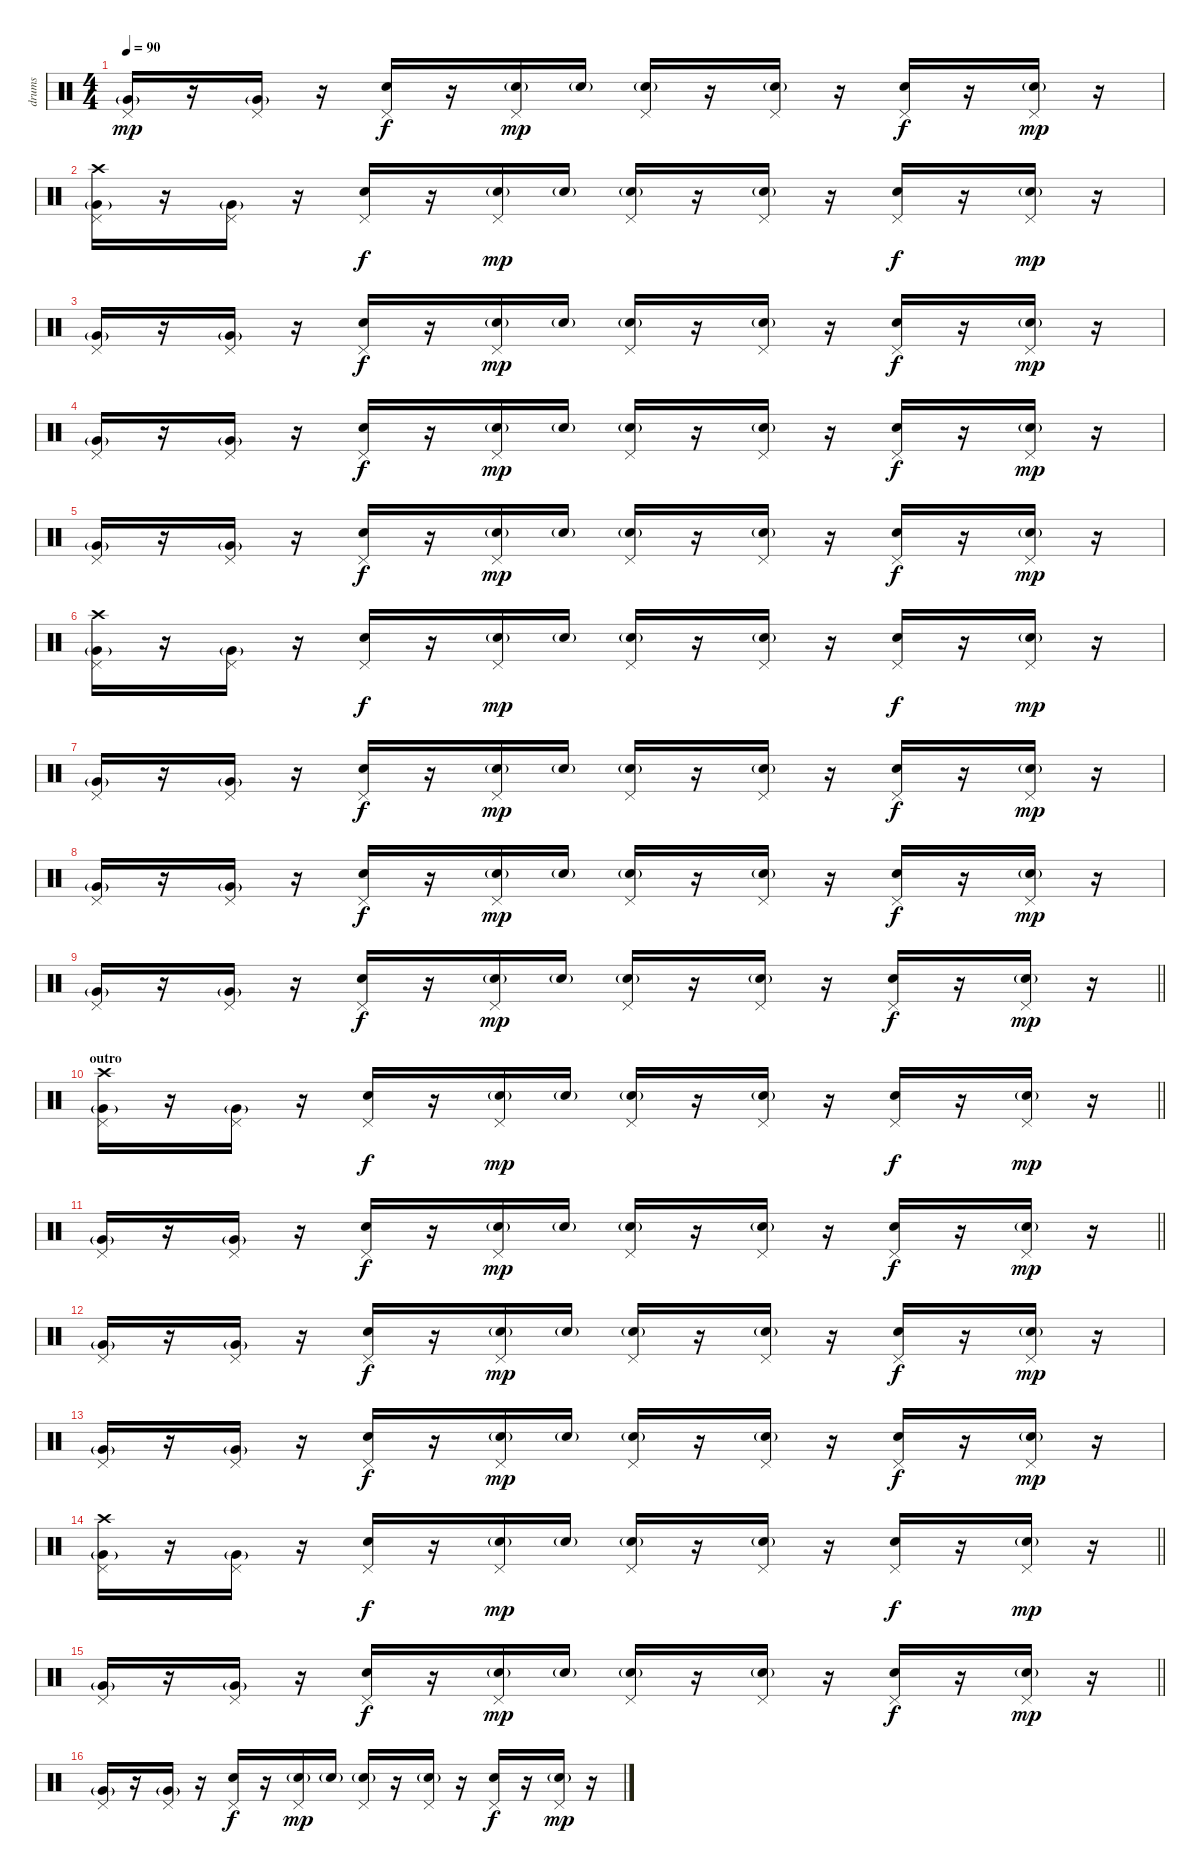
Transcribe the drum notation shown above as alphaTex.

\track ("drums" "drums") {instrument percussion}
\staff {score}
\articulation defaults
\ts (4 4)
\tempo 90
\clef neutral
\ks c
("Very Low Tom (hit)"{g} "Pedal Hi-Hat (hit)").16{dy mp} r.16 ("Very Low Tom (hit)"{g} "Pedal Hi-Hat (hit)").16 r.16 ("Electric Snare (hit)" "Pedal Hi-Hat (hit)").16{dy f} r.16 ("Electric Snare (hit)"{g} "Pedal Hi-Hat (hit)").16{dy mp} "Electric Snare (hit)"{g}.16 ("Electric Snare (hit)"{g} "Pedal Hi-Hat (hit)").16 r.16 ("Electric Snare (hit)"{g} "Pedal Hi-Hat (hit)").16 r.16 ("Electric Snare (hit)" "Pedal Hi-Hat (hit)").16{dy f} r.16 ("Electric Snare (hit)"{g} "Pedal Hi-Hat (hit)").16{dy mp} r.16 |
("Very Low Tom (hit)"{g} "Pedal Hi-Hat (hit)" "Crash high (hit)").16 r.16 ("Very Low Tom (hit)"{g} "Pedal Hi-Hat (hit)").16 r.16 ("Electric Snare (hit)" "Pedal Hi-Hat (hit)").16{dy f} r.16 ("Electric Snare (hit)"{g} "Pedal Hi-Hat (hit)").16{dy mp} "Electric Snare (hit)"{g}.16 ("Electric Snare (hit)"{g} "Pedal Hi-Hat (hit)").16 r.16 ("Electric Snare (hit)"{g} "Pedal Hi-Hat (hit)").16 r.16 ("Electric Snare (hit)" "Pedal Hi-Hat (hit)").16{dy f} r.16 ("Electric Snare (hit)"{g} "Pedal Hi-Hat (hit)").16{dy mp} r.16 |
("Very Low Tom (hit)"{g} "Pedal Hi-Hat (hit)").16 r.16 ("Very Low Tom (hit)"{g} "Pedal Hi-Hat (hit)").16 r.16 ("Electric Snare (hit)" "Pedal Hi-Hat (hit)").16{dy f} r.16 ("Electric Snare (hit)"{g} "Pedal Hi-Hat (hit)").16{dy mp} "Electric Snare (hit)"{g}.16 ("Electric Snare (hit)"{g} "Pedal Hi-Hat (hit)").16 r.16 ("Electric Snare (hit)"{g} "Pedal Hi-Hat (hit)").16 r.16 ("Electric Snare (hit)" "Pedal Hi-Hat (hit)").16{dy f} r.16 ("Electric Snare (hit)"{g} "Pedal Hi-Hat (hit)").16{dy mp} r.16 |
("Very Low Tom (hit)"{g} "Pedal Hi-Hat (hit)").16 r.16 ("Very Low Tom (hit)"{g} "Pedal Hi-Hat (hit)").16 r.16 ("Electric Snare (hit)" "Pedal Hi-Hat (hit)").16{dy f} r.16 ("Electric Snare (hit)"{g} "Pedal Hi-Hat (hit)").16{dy mp} "Electric Snare (hit)"{g}.16 ("Electric Snare (hit)"{g} "Pedal Hi-Hat (hit)").16 r.16 ("Electric Snare (hit)"{g} "Pedal Hi-Hat (hit)").16 r.16 ("Electric Snare (hit)" "Pedal Hi-Hat (hit)").16{dy f} r.16 ("Electric Snare (hit)"{g} "Pedal Hi-Hat (hit)").16{dy mp} r.16 |
("Very Low Tom (hit)"{g} "Pedal Hi-Hat (hit)").16 r.16 ("Very Low Tom (hit)"{g} "Pedal Hi-Hat (hit)").16 r.16 ("Electric Snare (hit)" "Pedal Hi-Hat (hit)").16{dy f} r.16 ("Electric Snare (hit)"{g} "Pedal Hi-Hat (hit)").16{dy mp} "Electric Snare (hit)"{g}.16 ("Electric Snare (hit)"{g} "Pedal Hi-Hat (hit)").16 r.16 ("Electric Snare (hit)"{g} "Pedal Hi-Hat (hit)").16 r.16 ("Electric Snare (hit)" "Pedal Hi-Hat (hit)").16{dy f} r.16 ("Electric Snare (hit)"{g} "Pedal Hi-Hat (hit)").16{dy mp} r.16 |
("Very Low Tom (hit)"{g} "Pedal Hi-Hat (hit)" "Crash high (hit)").16 r.16 ("Very Low Tom (hit)"{g} "Pedal Hi-Hat (hit)").16 r.16 ("Electric Snare (hit)" "Pedal Hi-Hat (hit)").16{dy f} r.16 ("Electric Snare (hit)"{g} "Pedal Hi-Hat (hit)").16{dy mp} "Electric Snare (hit)"{g}.16 ("Electric Snare (hit)"{g} "Pedal Hi-Hat (hit)").16 r.16 ("Electric Snare (hit)"{g} "Pedal Hi-Hat (hit)").16 r.16 ("Electric Snare (hit)" "Pedal Hi-Hat (hit)").16{dy f} r.16 ("Electric Snare (hit)"{g} "Pedal Hi-Hat (hit)").16{dy mp} r.16 |
("Very Low Tom (hit)"{g} "Pedal Hi-Hat (hit)").16 r.16 ("Very Low Tom (hit)"{g} "Pedal Hi-Hat (hit)").16 r.16 ("Electric Snare (hit)" "Pedal Hi-Hat (hit)").16{dy f} r.16 ("Electric Snare (hit)"{g} "Pedal Hi-Hat (hit)").16{dy mp} "Electric Snare (hit)"{g}.16 ("Electric Snare (hit)"{g} "Pedal Hi-Hat (hit)").16 r.16 ("Electric Snare (hit)"{g} "Pedal Hi-Hat (hit)").16 r.16 ("Electric Snare (hit)" "Pedal Hi-Hat (hit)").16{dy f} r.16 ("Electric Snare (hit)"{g} "Pedal Hi-Hat (hit)").16{dy mp} r.16 |
("Very Low Tom (hit)"{g} "Pedal Hi-Hat (hit)").16 r.16 ("Very Low Tom (hit)"{g} "Pedal Hi-Hat (hit)").16 r.16 ("Electric Snare (hit)" "Pedal Hi-Hat (hit)").16{dy f} r.16 ("Electric Snare (hit)"{g} "Pedal Hi-Hat (hit)").16{dy mp} "Electric Snare (hit)"{g}.16 ("Electric Snare (hit)"{g} "Pedal Hi-Hat (hit)").16 r.16 ("Electric Snare (hit)"{g} "Pedal Hi-Hat (hit)").16 r.16 ("Electric Snare (hit)" "Pedal Hi-Hat (hit)").16{dy f} r.16 ("Electric Snare (hit)"{g} "Pedal Hi-Hat (hit)").16{dy mp} r.16 |
\barLineRight lightlight
("Very Low Tom (hit)"{g} "Pedal Hi-Hat (hit)").16 r.16 ("Very Low Tom (hit)"{g} "Pedal Hi-Hat (hit)").16 r.16 ("Electric Snare (hit)" "Pedal Hi-Hat (hit)").16{dy f} r.16 ("Electric Snare (hit)"{g} "Pedal Hi-Hat (hit)").16{dy mp} "Electric Snare (hit)"{g}.16 ("Electric Snare (hit)"{g} "Pedal Hi-Hat (hit)").16 r.16 ("Electric Snare (hit)"{g} "Pedal Hi-Hat (hit)").16 r.16 ("Electric Snare (hit)" "Pedal Hi-Hat (hit)").16{dy f} r.16 ("Electric Snare (hit)"{g} "Pedal Hi-Hat (hit)").16{dy mp} r.16 |
\section ("" "outro")
\barLineRight lightlight
("Very Low Tom (hit)"{g} "Pedal Hi-Hat (hit)" "Crash high (hit)").16 r.16 ("Very Low Tom (hit)"{g} "Pedal Hi-Hat (hit)").16 r.16 ("Electric Snare (hit)" "Pedal Hi-Hat (hit)").16{dy f} r.16 ("Electric Snare (hit)"{g} "Pedal Hi-Hat (hit)").16{dy mp} "Electric Snare (hit)"{g}.16 ("Electric Snare (hit)"{g} "Pedal Hi-Hat (hit)").16 r.16 ("Electric Snare (hit)"{g} "Pedal Hi-Hat (hit)").16 r.16 ("Electric Snare (hit)" "Pedal Hi-Hat (hit)").16{dy f} r.16 ("Electric Snare (hit)"{g} "Pedal Hi-Hat (hit)").16{dy mp} r.16 |
\barLineRight lightlight
("Very Low Tom (hit)"{g} "Pedal Hi-Hat (hit)").16 r.16 ("Very Low Tom (hit)"{g} "Pedal Hi-Hat (hit)").16 r.16 ("Electric Snare (hit)" "Pedal Hi-Hat (hit)").16{dy f} r.16 ("Electric Snare (hit)"{g} "Pedal Hi-Hat (hit)").16{dy mp} "Electric Snare (hit)"{g}.16 ("Electric Snare (hit)"{g} "Pedal Hi-Hat (hit)").16 r.16 ("Electric Snare (hit)"{g} "Pedal Hi-Hat (hit)").16 r.16 ("Electric Snare (hit)" "Pedal Hi-Hat (hit)").16{dy f} r.16 ("Electric Snare (hit)"{g} "Pedal Hi-Hat (hit)").16{dy mp} r.16 |
("Very Low Tom (hit)"{g} "Pedal Hi-Hat (hit)").16 r.16 ("Very Low Tom (hit)"{g} "Pedal Hi-Hat (hit)").16 r.16 ("Electric Snare (hit)" "Pedal Hi-Hat (hit)").16{dy f} r.16 ("Electric Snare (hit)"{g} "Pedal Hi-Hat (hit)").16{dy mp} "Electric Snare (hit)"{g}.16 ("Electric Snare (hit)"{g} "Pedal Hi-Hat (hit)").16 r.16 ("Electric Snare (hit)"{g} "Pedal Hi-Hat (hit)").16 r.16 ("Electric Snare (hit)" "Pedal Hi-Hat (hit)").16{dy f} r.16 ("Electric Snare (hit)"{g} "Pedal Hi-Hat (hit)").16{dy mp} r.16 |
("Very Low Tom (hit)"{g} "Pedal Hi-Hat (hit)").16 r.16 ("Very Low Tom (hit)"{g} "Pedal Hi-Hat (hit)").16 r.16 ("Electric Snare (hit)" "Pedal Hi-Hat (hit)").16{dy f} r.16 ("Electric Snare (hit)"{g} "Pedal Hi-Hat (hit)").16{dy mp} "Electric Snare (hit)"{g}.16 ("Electric Snare (hit)"{g} "Pedal Hi-Hat (hit)").16 r.16 ("Electric Snare (hit)"{g} "Pedal Hi-Hat (hit)").16 r.16 ("Electric Snare (hit)" "Pedal Hi-Hat (hit)").16{dy f} r.16 ("Electric Snare (hit)"{g} "Pedal Hi-Hat (hit)").16{dy mp} r.16 |
\barLineRight lightlight
("Very Low Tom (hit)"{g} "Pedal Hi-Hat (hit)" "Crash high (hit)").16 r.16 ("Very Low Tom (hit)"{g} "Pedal Hi-Hat (hit)").16 r.16 ("Electric Snare (hit)" "Pedal Hi-Hat (hit)").16{dy f} r.16 ("Electric Snare (hit)"{g} "Pedal Hi-Hat (hit)").16{dy mp} "Electric Snare (hit)"{g}.16 ("Electric Snare (hit)"{g} "Pedal Hi-Hat (hit)").16 r.16 ("Electric Snare (hit)"{g} "Pedal Hi-Hat (hit)").16 r.16 ("Electric Snare (hit)" "Pedal Hi-Hat (hit)").16{dy f} r.16 ("Electric Snare (hit)"{g} "Pedal Hi-Hat (hit)").16{dy mp} r.16 |
\barLineRight lightlight
("Very Low Tom (hit)"{g} "Pedal Hi-Hat (hit)").16 r.16 ("Very Low Tom (hit)"{g} "Pedal Hi-Hat (hit)").16 r.16 ("Electric Snare (hit)" "Pedal Hi-Hat (hit)").16{dy f} r.16 ("Electric Snare (hit)"{g} "Pedal Hi-Hat (hit)").16{dy mp} "Electric Snare (hit)"{g}.16 ("Electric Snare (hit)"{g} "Pedal Hi-Hat (hit)").16 r.16 ("Electric Snare (hit)"{g} "Pedal Hi-Hat (hit)").16 r.16 ("Electric Snare (hit)" "Pedal Hi-Hat (hit)").16{dy f} r.16 ("Electric Snare (hit)"{g} "Pedal Hi-Hat (hit)").16{dy mp} r.16 |
("Very Low Tom (hit)"{g} "Pedal Hi-Hat (hit)").16 r.16 ("Very Low Tom (hit)"{g} "Pedal Hi-Hat (hit)").16 r.16 ("Electric Snare (hit)" "Pedal Hi-Hat (hit)").16{dy f} r.16 ("Electric Snare (hit)"{g} "Pedal Hi-Hat (hit)").16{dy mp} "Electric Snare (hit)"{g}.16 ("Electric Snare (hit)"{g} "Pedal Hi-Hat (hit)").16 r.16 ("Electric Snare (hit)"{g} "Pedal Hi-Hat (hit)").16 r.16 ("Electric Snare (hit)" "Pedal Hi-Hat (hit)").16{dy f} r.16 ("Electric Snare (hit)"{g} "Pedal Hi-Hat (hit)").16{dy mp} r.16
